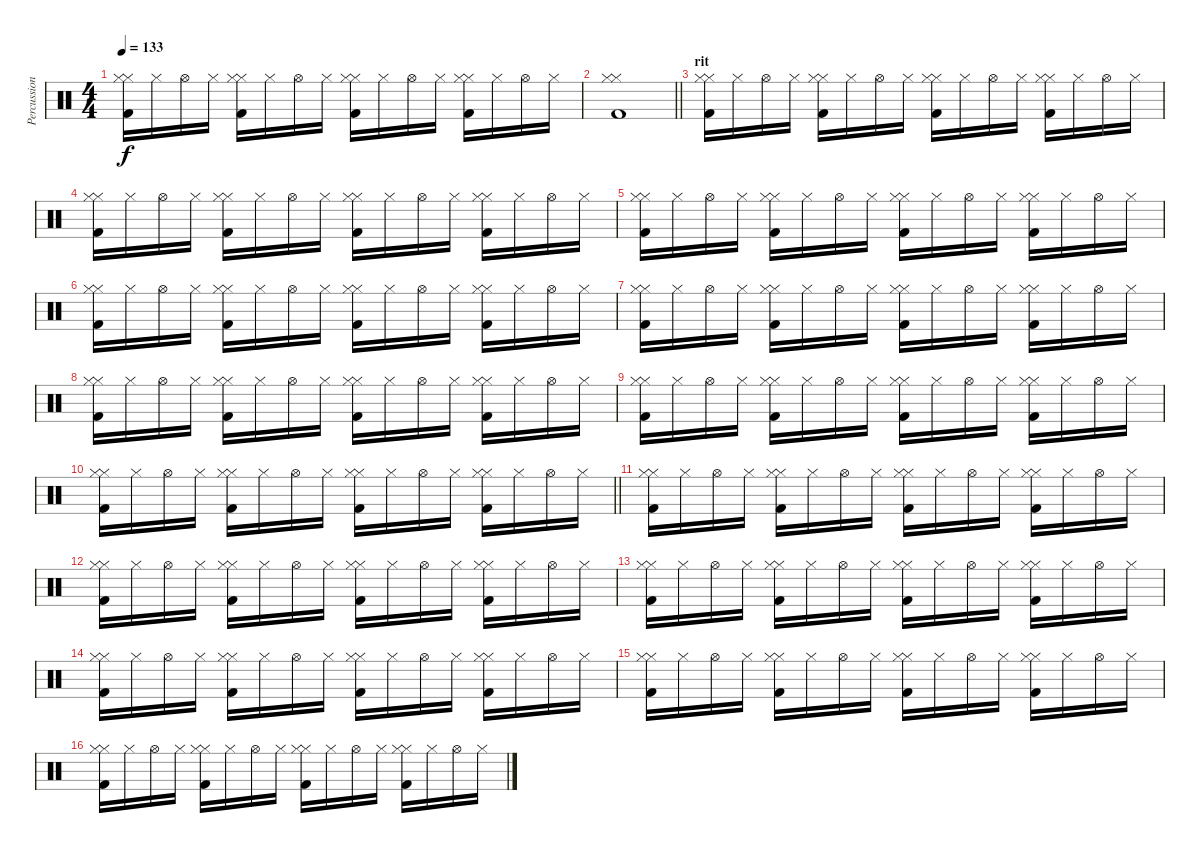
\track ("Percussioni" "Percussion") {instrument percussion}
\staff {score}
\articulation defaults
\ts (4 4)
\tempo 133
\clef neutral
\ks c
("Hi-Hat (closed)" "Kick (hit) 2" "Hi-Hat (closed)").16{dy f} "Hi-Hat (closed)".16 "Hi-Hat (open)".16 "Hi-Hat (closed)".16 ("Hi-Hat (closed)" "Kick (hit) 2" "Hi-Hat (closed)").16 "Hi-Hat (closed)".16 "Hi-Hat (open)".16 "Hi-Hat (closed)".16 ("Hi-Hat (closed)" "Kick (hit) 2" "Hi-Hat (closed)").16 "Hi-Hat (closed)".16 "Hi-Hat (open)".16 "Hi-Hat (closed)".16 ("Hi-Hat (closed)" "Kick (hit) 2" "Hi-Hat (closed)").16 "Hi-Hat (closed)".16 "Hi-Hat (open)".16 "Hi-Hat (closed)".16 |
\barLineRight lightlight
("Hi-Hat (closed)" "Kick (hit) 2" "Hi-Hat (closed)").1 |
\section ("" "rit")
("Hi-Hat (closed)" "Kick (hit) 2" "Hi-Hat (closed)").16 "Hi-Hat (closed)".16 "Hi-Hat (open)".16 "Hi-Hat (closed)".16 ("Hi-Hat (closed)" "Kick (hit) 2" "Hi-Hat (closed)").16 "Hi-Hat (closed)".16 "Hi-Hat (open)".16 "Hi-Hat (closed)".16 ("Hi-Hat (closed)" "Kick (hit) 2" "Hi-Hat (closed)").16 "Hi-Hat (closed)".16 "Hi-Hat (open)".16 "Hi-Hat (closed)".16 ("Hi-Hat (closed)" "Kick (hit) 2" "Hi-Hat (closed)").16 "Hi-Hat (closed)".16 "Hi-Hat (open)".16 "Hi-Hat (closed)".16 |
("Hi-Hat (closed)" "Kick (hit) 2" "Hi-Hat (closed)").16 "Hi-Hat (closed)".16 "Hi-Hat (open)".16 "Hi-Hat (closed)".16 ("Hi-Hat (closed)" "Kick (hit) 2" "Hi-Hat (closed)").16 "Hi-Hat (closed)".16 "Hi-Hat (open)".16 "Hi-Hat (closed)".16 ("Hi-Hat (closed)" "Kick (hit) 2" "Hi-Hat (closed)").16 "Hi-Hat (closed)".16 "Hi-Hat (open)".16 "Hi-Hat (closed)".16 ("Hi-Hat (closed)" "Kick (hit) 2" "Hi-Hat (closed)").16 "Hi-Hat (closed)".16 "Hi-Hat (open)".16 "Hi-Hat (closed)".16 |
("Hi-Hat (closed)" "Kick (hit) 2" "Hi-Hat (closed)").16 "Hi-Hat (closed)".16 "Hi-Hat (open)".16 "Hi-Hat (closed)".16 ("Hi-Hat (closed)" "Kick (hit) 2" "Hi-Hat (closed)").16 "Hi-Hat (closed)".16 "Hi-Hat (open)".16 "Hi-Hat (closed)".16 ("Hi-Hat (closed)" "Kick (hit) 2" "Hi-Hat (closed)").16 "Hi-Hat (closed)".16 "Hi-Hat (open)".16 "Hi-Hat (closed)".16 ("Hi-Hat (closed)" "Kick (hit) 2" "Hi-Hat (closed)").16 "Hi-Hat (closed)".16 "Hi-Hat (open)".16 "Hi-Hat (closed)".16 |
("Hi-Hat (closed)" "Kick (hit) 2" "Hi-Hat (closed)").16 "Hi-Hat (closed)".16 "Hi-Hat (open)".16 "Hi-Hat (closed)".16 ("Hi-Hat (closed)" "Kick (hit) 2" "Hi-Hat (closed)").16 "Hi-Hat (closed)".16 "Hi-Hat (open)".16 "Hi-Hat (closed)".16 ("Hi-Hat (closed)" "Kick (hit) 2" "Hi-Hat (closed)").16 "Hi-Hat (closed)".16 "Hi-Hat (open)".16 "Hi-Hat (closed)".16 ("Hi-Hat (closed)" "Kick (hit) 2" "Hi-Hat (closed)").16 "Hi-Hat (closed)".16 "Hi-Hat (open)".16 "Hi-Hat (closed)".16 |
("Hi-Hat (closed)" "Kick (hit) 2" "Hi-Hat (closed)").16 "Hi-Hat (closed)".16 "Hi-Hat (open)".16 "Hi-Hat (closed)".16 ("Hi-Hat (closed)" "Kick (hit) 2" "Hi-Hat (closed)").16 "Hi-Hat (closed)".16 "Hi-Hat (open)".16 "Hi-Hat (closed)".16 ("Hi-Hat (closed)" "Kick (hit) 2" "Hi-Hat (closed)").16 "Hi-Hat (closed)".16 "Hi-Hat (open)".16 "Hi-Hat (closed)".16 ("Hi-Hat (closed)" "Kick (hit) 2" "Hi-Hat (closed)").16 "Hi-Hat (closed)".16 "Hi-Hat (open)".16 "Hi-Hat (closed)".16 |
("Hi-Hat (closed)" "Kick (hit) 2" "Hi-Hat (closed)").16 "Hi-Hat (closed)".16 "Hi-Hat (open)".16 "Hi-Hat (closed)".16 ("Hi-Hat (closed)" "Kick (hit) 2" "Hi-Hat (closed)").16 "Hi-Hat (closed)".16 "Hi-Hat (open)".16 "Hi-Hat (closed)".16 ("Hi-Hat (closed)" "Kick (hit) 2" "Hi-Hat (closed)").16 "Hi-Hat (closed)".16 "Hi-Hat (open)".16 "Hi-Hat (closed)".16 ("Hi-Hat (closed)" "Kick (hit) 2" "Hi-Hat (closed)").16 "Hi-Hat (closed)".16 "Hi-Hat (open)".16 "Hi-Hat (closed)".16 |
("Hi-Hat (closed)" "Kick (hit) 2" "Hi-Hat (closed)").16 "Hi-Hat (closed)".16 "Hi-Hat (open)".16 "Hi-Hat (closed)".16 ("Hi-Hat (closed)" "Kick (hit) 2" "Hi-Hat (closed)").16 "Hi-Hat (closed)".16 "Hi-Hat (open)".16 "Hi-Hat (closed)".16 ("Hi-Hat (closed)" "Kick (hit) 2" "Hi-Hat (closed)").16 "Hi-Hat (closed)".16 "Hi-Hat (open)".16 "Hi-Hat (closed)".16 ("Hi-Hat (closed)" "Kick (hit) 2" "Hi-Hat (closed)").16 "Hi-Hat (closed)".16 "Hi-Hat (open)".16 "Hi-Hat (closed)".16 |
\barLineRight lightlight
("Hi-Hat (closed)" "Kick (hit) 2" "Hi-Hat (closed)").16 "Hi-Hat (closed)".16 "Hi-Hat (open)".16 "Hi-Hat (closed)".16 ("Hi-Hat (closed)" "Kick (hit) 2" "Hi-Hat (closed)").16 "Hi-Hat (closed)".16 "Hi-Hat (open)".16 "Hi-Hat (closed)".16 ("Hi-Hat (closed)" "Kick (hit) 2" "Hi-Hat (closed)").16 "Hi-Hat (closed)".16 "Hi-Hat (open)".16 "Hi-Hat (closed)".16 ("Hi-Hat (closed)" "Kick (hit) 2" "Hi-Hat (closed)").16 "Hi-Hat (closed)".16 "Hi-Hat (open)".16 "Hi-Hat (closed)".16 |
("Hi-Hat (closed)" "Kick (hit) 2" "Hi-Hat (closed)").16 "Hi-Hat (closed)".16 "Hi-Hat (open)".16 "Hi-Hat (closed)".16 ("Hi-Hat (closed)" "Kick (hit) 2" "Hi-Hat (closed)").16 "Hi-Hat (closed)".16 "Hi-Hat (open)".16 "Hi-Hat (closed)".16 ("Hi-Hat (closed)" "Kick (hit) 2" "Hi-Hat (closed)").16 "Hi-Hat (closed)".16 "Hi-Hat (open)".16 "Hi-Hat (closed)".16 ("Hi-Hat (closed)" "Kick (hit) 2" "Hi-Hat (closed)").16 "Hi-Hat (closed)".16 "Hi-Hat (open)".16 "Hi-Hat (closed)".16 |
("Hi-Hat (closed)" "Kick (hit) 2" "Hi-Hat (closed)").16 "Hi-Hat (closed)".16 "Hi-Hat (open)".16 "Hi-Hat (closed)".16 ("Hi-Hat (closed)" "Kick (hit) 2" "Hi-Hat (closed)").16 "Hi-Hat (closed)".16 "Hi-Hat (open)".16 "Hi-Hat (closed)".16 ("Hi-Hat (closed)" "Kick (hit) 2" "Hi-Hat (closed)").16 "Hi-Hat (closed)".16 "Hi-Hat (open)".16 "Hi-Hat (closed)".16 ("Hi-Hat (closed)" "Kick (hit) 2" "Hi-Hat (closed)").16 "Hi-Hat (closed)".16 "Hi-Hat (open)".16 "Hi-Hat (closed)".16 |
("Hi-Hat (closed)" "Kick (hit) 2" "Hi-Hat (closed)").16 "Hi-Hat (closed)".16 "Hi-Hat (open)".16 "Hi-Hat (closed)".16 ("Hi-Hat (closed)" "Kick (hit) 2" "Hi-Hat (closed)").16 "Hi-Hat (closed)".16 "Hi-Hat (open)".16 "Hi-Hat (closed)".16 ("Hi-Hat (closed)" "Kick (hit) 2" "Hi-Hat (closed)").16 "Hi-Hat (closed)".16 "Hi-Hat (open)".16 "Hi-Hat (closed)".16 ("Hi-Hat (closed)" "Kick (hit) 2" "Hi-Hat (closed)").16 "Hi-Hat (closed)".16 "Hi-Hat (open)".16 "Hi-Hat (closed)".16 |
("Hi-Hat (closed)" "Kick (hit) 2" "Hi-Hat (closed)").16 "Hi-Hat (closed)".16 "Hi-Hat (open)".16 "Hi-Hat (closed)".16 ("Hi-Hat (closed)" "Kick (hit) 2" "Hi-Hat (closed)").16 "Hi-Hat (closed)".16 "Hi-Hat (open)".16 "Hi-Hat (closed)".16 ("Hi-Hat (closed)" "Kick (hit) 2" "Hi-Hat (closed)").16 "Hi-Hat (closed)".16 "Hi-Hat (open)".16 "Hi-Hat (closed)".16 ("Hi-Hat (closed)" "Kick (hit) 2" "Hi-Hat (closed)").16 "Hi-Hat (closed)".16 "Hi-Hat (open)".16 "Hi-Hat (closed)".16 |
("Hi-Hat (closed)" "Kick (hit) 2" "Hi-Hat (closed)").16 "Hi-Hat (closed)".16 "Hi-Hat (open)".16 "Hi-Hat (closed)".16 ("Hi-Hat (closed)" "Kick (hit) 2" "Hi-Hat (closed)").16 "Hi-Hat (closed)".16 "Hi-Hat (open)".16 "Hi-Hat (closed)".16 ("Hi-Hat (closed)" "Kick (hit) 2" "Hi-Hat (closed)").16 "Hi-Hat (closed)".16 "Hi-Hat (open)".16 "Hi-Hat (closed)".16 ("Hi-Hat (closed)" "Kick (hit) 2" "Hi-Hat (closed)").16 "Hi-Hat (closed)".16 "Hi-Hat (open)".16 "Hi-Hat (closed)".16 |
("Hi-Hat (closed)" "Kick (hit) 2" "Hi-Hat (closed)").16 "Hi-Hat (closed)".16 "Hi-Hat (open)".16 "Hi-Hat (closed)".16 ("Hi-Hat (closed)" "Kick (hit) 2" "Hi-Hat (closed)").16 "Hi-Hat (closed)".16 "Hi-Hat (open)".16 "Hi-Hat (closed)".16 ("Hi-Hat (closed)" "Kick (hit) 2" "Hi-Hat (closed)").16 "Hi-Hat (closed)".16 "Hi-Hat (open)".16 "Hi-Hat (closed)".16 ("Hi-Hat (closed)" "Kick (hit) 2" "Hi-Hat (closed)").16 "Hi-Hat (closed)".16 "Hi-Hat (open)".16 "Hi-Hat (closed)".16
